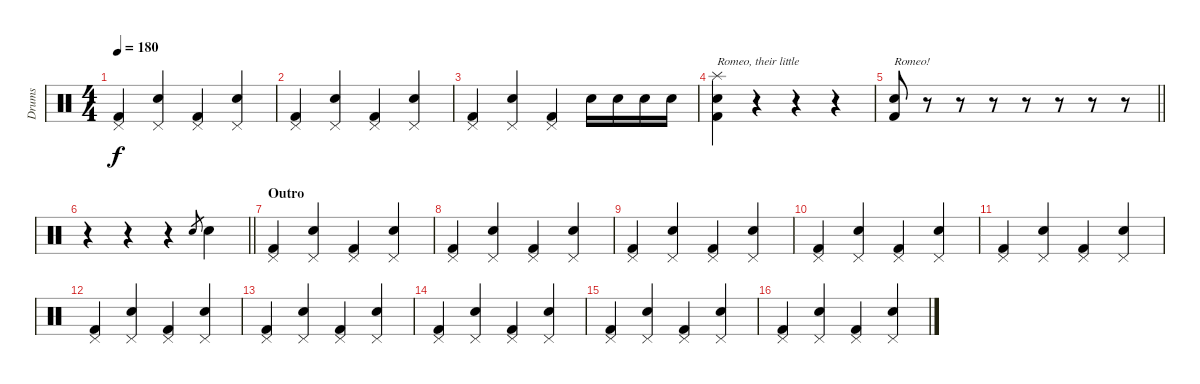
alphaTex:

\track ("Drums" "Drums") {instrument percussion}
\staff {score}
\articulation defaults
\ts (4 4)
\tempo 180
\clef neutral
\ks c
("Pedal Hi-Hat (hit)" "Kick (hit) 2").4{dy f} ("Pedal Hi-Hat (hit)" "Snare (hit) 2").4 ("Pedal Hi-Hat (hit)" "Kick (hit) 2").4 ("Pedal Hi-Hat (hit)" "Snare (hit) 2").4 |
("Pedal Hi-Hat (hit)" "Kick (hit) 2").4 ("Pedal Hi-Hat (hit)" "Snare (hit) 2").4 ("Pedal Hi-Hat (hit)" "Kick (hit) 2").4 ("Pedal Hi-Hat (hit)" "Snare (hit) 2").4 |
("Pedal Hi-Hat (hit)" "Kick (hit) 2").4 ("Pedal Hi-Hat (hit)" "Snare (hit) 2").4 ("Pedal Hi-Hat (hit)" "Kick (hit) 2").4 "Snare (hit) 2".16 "Snare (hit) 2".16 "Snare (hit) 2".16 "Snare (hit) 2".16 |
("Splash (hit)" "Snare (hit) 2" "Kick (hit) 2").4{txt "Romeo, their little"} r.4 r.4 r.4 |
\barLineRight lightlight
("Snare (hit) 2" "Kick (hit) 2").8{txt "Romeo!"} r.8 r.8 r.8 r.8 r.8 r.8 r.8 |
\barLineRight lightlight
r.4 r.4 r.4 "Snare (hit) 2".8{gr} "Snare (hit) 2".4 |
\section ("" "Outro")
("Pedal Hi-Hat (hit)" "Kick (hit) 2").4 ("Pedal Hi-Hat (hit)" "Snare (hit) 2").4 ("Pedal Hi-Hat (hit)" "Kick (hit) 2").4 ("Pedal Hi-Hat (hit)" "Snare (hit) 2").4 |
("Pedal Hi-Hat (hit)" "Kick (hit) 2").4 ("Pedal Hi-Hat (hit)" "Snare (hit) 2").4 ("Pedal Hi-Hat (hit)" "Kick (hit) 2").4 ("Pedal Hi-Hat (hit)" "Snare (hit) 2").4 |
("Pedal Hi-Hat (hit)" "Kick (hit) 2").4 ("Pedal Hi-Hat (hit)" "Snare (hit) 2").4 ("Pedal Hi-Hat (hit)" "Kick (hit) 2").4 ("Pedal Hi-Hat (hit)" "Snare (hit) 2").4 |
("Pedal Hi-Hat (hit)" "Kick (hit) 2").4 ("Pedal Hi-Hat (hit)" "Snare (hit) 2").4 ("Pedal Hi-Hat (hit)" "Kick (hit) 2").4 ("Pedal Hi-Hat (hit)" "Snare (hit) 2").4 |
("Pedal Hi-Hat (hit)" "Kick (hit) 2").4 ("Pedal Hi-Hat (hit)" "Snare (hit) 2").4 ("Pedal Hi-Hat (hit)" "Kick (hit) 2").4 ("Pedal Hi-Hat (hit)" "Snare (hit) 2").4 |
("Pedal Hi-Hat (hit)" "Kick (hit) 2").4 ("Pedal Hi-Hat (hit)" "Snare (hit) 2").4 ("Pedal Hi-Hat (hit)" "Kick (hit) 2").4 ("Pedal Hi-Hat (hit)" "Snare (hit) 2").4 |
("Pedal Hi-Hat (hit)" "Kick (hit) 2").4 ("Pedal Hi-Hat (hit)" "Snare (hit) 2").4 ("Pedal Hi-Hat (hit)" "Kick (hit) 2").4 ("Pedal Hi-Hat (hit)" "Snare (hit) 2").4 |
("Pedal Hi-Hat (hit)" "Kick (hit) 2").4 ("Pedal Hi-Hat (hit)" "Snare (hit) 2").4 ("Pedal Hi-Hat (hit)" "Kick (hit) 2").4 ("Pedal Hi-Hat (hit)" "Snare (hit) 2").4 |
("Pedal Hi-Hat (hit)" "Kick (hit) 2").4 ("Pedal Hi-Hat (hit)" "Snare (hit) 2").4 ("Pedal Hi-Hat (hit)" "Kick (hit) 2").4 ("Pedal Hi-Hat (hit)" "Snare (hit) 2").4 |
("Pedal Hi-Hat (hit)" "Kick (hit) 2").4 ("Pedal Hi-Hat (hit)" "Snare (hit) 2").4 ("Pedal Hi-Hat (hit)" "Kick (hit) 2").4 ("Pedal Hi-Hat (hit)" "Snare (hit) 2").4
